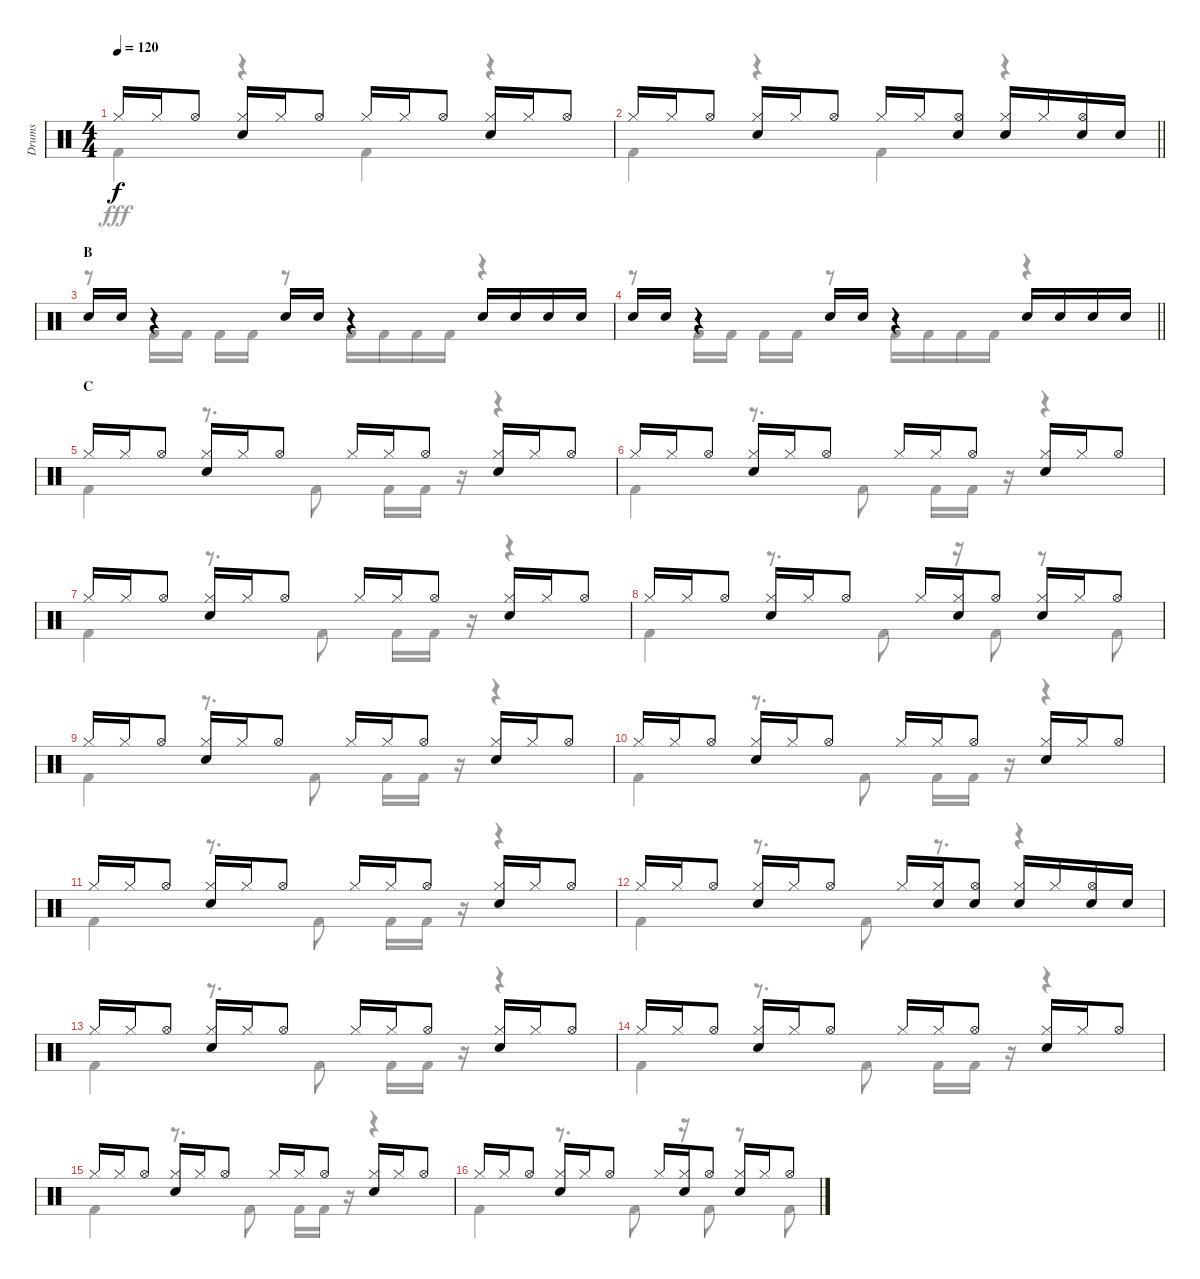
\track ("Drums" "Drums") {instrument percussion}
\staff {score}
\articulation defaults
\voice
\ts (4 4)
\tempo 120
\clef neutral
\ks c "Hi-Hat (closed)".16{dy f} "Hi-Hat (closed)".16 "Hi-Hat (open)".8
("Hi-Hat (closed)" "Electric Snare (hit)").16 "Hi-Hat (closed)".16 "Hi-Hat (open)".8 "Hi-Hat (closed)".16 "Hi-Hat (closed)".16 "Hi-Hat (open)".8 ("Hi-Hat (closed)" "Electric Snare (hit)").16 "Hi-Hat (closed)".16 "Hi-Hat (open)".8 |
\barLineRight lightlight "Hi-Hat (closed)".16 "Hi-Hat (closed)".16 "Hi-Hat (open)".8
("Hi-Hat (closed)" "Electric Snare (hit)").16 "Hi-Hat (closed)".16 "Hi-Hat (open)".8 "Hi-Hat (closed)".16 "Hi-Hat (closed)".16 ("Hi-Hat (open)" "Electric Snare (hit)").8 ("Hi-Hat (closed)" "Electric Snare (hit)").16 "Hi-Hat (closed)".16 ("Hi-Hat (open)" "Electric Snare (hit)").16 "Electric Snare (hit)".16 |
\section ("" "B")
"Electric Snare (hit)".16 "Electric Snare (hit)".16 r.4 "Electric Snare (hit)".16 "Electric Snare (hit)".16 r.4 "Electric Snare (hit)".16 "Electric Snare (hit)".16 "Electric Snare (hit)".16 "Electric Snare (hit)".16 |
\barLineRight lightlight "Electric Snare (hit)".16 "Electric Snare (hit)".16
r.4 "Electric Snare (hit)".16 "Electric Snare (hit)".16 r.4 "Electric Snare (hit)".16 "Electric Snare (hit)".16 "Electric Snare (hit)".16 "Electric Snare (hit)".16 |
\section ("" "C")
"Hi-Hat (closed)".16 "Hi-Hat (closed)".16 "Hi-Hat (open)".8 ("Hi-Hat (closed)" "Electric Snare (hit)").16 "Hi-Hat (closed)".16 "Hi-Hat (open)".8 "Hi-Hat (closed)".16 "Hi-Hat (closed)".16 "Hi-Hat (open)".8 ("Hi-Hat (closed)" "Electric Snare (hit)").16 "Hi-Hat (closed)".16 "Hi-Hat (open)".8 |
"Hi-Hat (closed)".16 "Hi-Hat (closed)".16 "Hi-Hat (open)".8 ("Hi-Hat (closed)" "Electric Snare (hit)").16 "Hi-Hat (closed)".16 "Hi-Hat (open)".8 "Hi-Hat (closed)".16 "Hi-Hat (closed)".16 "Hi-Hat (open)".8 ("Hi-Hat (closed)" "Electric Snare (hit)").16 "Hi-Hat (closed)".16 "Hi-Hat (open)".8 |
"Hi-Hat (closed)".16 "Hi-Hat (closed)".16 "Hi-Hat (open)".8 ("Hi-Hat (closed)" "Electric Snare (hit)").16 "Hi-Hat (closed)".16 "Hi-Hat (open)".8 "Hi-Hat (closed)".16 "Hi-Hat (closed)".16 "Hi-Hat (open)".8 ("Hi-Hat (closed)" "Electric Snare (hit)").16 "Hi-Hat (closed)".16 "Hi-Hat (open)".8 |
"Hi-Hat (closed)".16 "Hi-Hat (closed)".16 "Hi-Hat (open)".8 ("Hi-Hat (closed)" "Electric Snare (hit)").16 "Hi-Hat (closed)".16 "Hi-Hat (open)".8 "Hi-Hat (closed)".16 ("Hi-Hat (closed)" "Electric Snare (hit)").16 "Hi-Hat (open)".8 ("Hi-Hat (closed)" "Electric Snare (hit)").16 "Hi-Hat (closed)".16 "Hi-Hat (open)".8 |
"Hi-Hat (closed)".16 "Hi-Hat (closed)".16 "Hi-Hat (open)".8 ("Hi-Hat (closed)" "Electric Snare (hit)").16 "Hi-Hat (closed)".16 "Hi-Hat (open)".8 "Hi-Hat (closed)".16 "Hi-Hat (closed)".16 "Hi-Hat (open)".8 ("Hi-Hat (closed)" "Electric Snare (hit)").16 "Hi-Hat (closed)".16 "Hi-Hat (open)".8 |
"Hi-Hat (closed)".16 "Hi-Hat (closed)".16 "Hi-Hat (open)".8 ("Hi-Hat (closed)" "Electric Snare (hit)").16 "Hi-Hat (closed)".16 "Hi-Hat (open)".8 "Hi-Hat (closed)".16 "Hi-Hat (closed)".16 "Hi-Hat (open)".8 ("Hi-Hat (closed)" "Electric Snare (hit)").16 "Hi-Hat (closed)".16 "Hi-Hat (open)".8 |
"Hi-Hat (closed)".16 "Hi-Hat (closed)".16 "Hi-Hat (open)".8 ("Hi-Hat (closed)" "Electric Snare (hit)").16 "Hi-Hat (closed)".16 "Hi-Hat (open)".8 "Hi-Hat (closed)".16 "Hi-Hat (closed)".16 "Hi-Hat (open)".8 ("Hi-Hat (closed)" "Electric Snare (hit)").16 "Hi-Hat (closed)".16 "Hi-Hat (open)".8 |
"Hi-Hat (closed)".16 "Hi-Hat (closed)".16 "Hi-Hat (open)".8 ("Hi-Hat (closed)" "Electric Snare (hit)").16 "Hi-Hat (closed)".16 "Hi-Hat (open)".8 "Hi-Hat (closed)".16 ("Hi-Hat (closed)" "Electric Snare (hit)").16 ("Hi-Hat (open)" "Electric Snare (hit)").8 ("Hi-Hat (closed)" "Electric Snare (hit)").16 "Hi-Hat (closed)".16 ("Hi-Hat (open)" "Electric Snare (hit)").16 "Electric Snare (hit)".16 |
"Hi-Hat (closed)".16 "Hi-Hat (closed)".16 "Hi-Hat (open)".8 ("Hi-Hat (closed)" "Electric Snare (hit)").16 "Hi-Hat (closed)".16 "Hi-Hat (open)".8 "Hi-Hat (closed)".16 "Hi-Hat (closed)".16 "Hi-Hat (open)".8 ("Hi-Hat (closed)" "Electric Snare (hit)").16 "Hi-Hat (closed)".16 "Hi-Hat (open)".8 |
"Hi-Hat (closed)".16 "Hi-Hat (closed)".16 "Hi-Hat (open)".8 ("Hi-Hat (closed)" "Electric Snare (hit)").16 "Hi-Hat (closed)".16 "Hi-Hat (open)".8 "Hi-Hat (closed)".16 "Hi-Hat (closed)".16 "Hi-Hat (open)".8 ("Hi-Hat (closed)" "Electric Snare (hit)").16 "Hi-Hat (closed)".16 "Hi-Hat (open)".8 |
"Hi-Hat (closed)".16 "Hi-Hat (closed)".16 "Hi-Hat (open)".8 ("Hi-Hat (closed)" "Electric Snare (hit)").16 "Hi-Hat (closed)".16 "Hi-Hat (open)".8 "Hi-Hat (closed)".16 "Hi-Hat (closed)".16 "Hi-Hat (open)".8 ("Hi-Hat (closed)" "Electric Snare (hit)").16 "Hi-Hat (closed)".16 "Hi-Hat (open)".8 |
"Hi-Hat (closed)".16 "Hi-Hat (closed)".16 "Hi-Hat (open)".8 ("Hi-Hat (closed)" "Electric Snare (hit)").16 "Hi-Hat (closed)".16 "Hi-Hat (open)".8 "Hi-Hat (closed)".16 ("Hi-Hat (closed)" "Electric Snare (hit)").16 "Hi-Hat (open)".8 ("Hi-Hat (closed)" "Electric Snare (hit)").16 "Hi-Hat (closed)".16 "Hi-Hat (open)".8
\voice
\clef neutral
\ottava regular
\simile none
\ks c "Kick (hit) 2".4{dy fff}
r.4 "Kick (hit) 2".4 r.4 |
\barLineRight lightlight "Kick (hit) 2".4
r.4 "Kick (hit) 2".4 r.4 |
r.8 "Kick (hit) 2".16 "Kick (hit) 2".16 "Kick (hit) 2".16 "Kick (hit) 2".16 r.8 "Kick (hit) 2".16 "Kick (hit) 2".16 "Kick (hit) 2".16 "Kick (hit) 2".16 r.4 |
\barLineRight lightlight
r.8 "Kick (hit) 2".16 "Kick (hit) 2".16 "Kick (hit) 2".16 "Kick (hit) 2".16 r.8 "Kick (hit) 2".16 "Kick (hit) 2".16 "Kick (hit) 2".16 "Kick (hit) 2".16 r.4 |
"Kick (hit) 2".4 r.8{d} "Kick (hit) 2".8 "Kick (hit) 2".16 "Kick (hit) 2".16 r.16 r.4 |
"Kick (hit) 2".4 r.8{d} "Kick (hit) 2".8 "Kick (hit) 2".16 "Kick (hit) 2".16 r.16 r.4 |
"Kick (hit) 2".4 r.8{d} "Kick (hit) 2".8 "Kick (hit) 2".16 "Kick (hit) 2".16 r.16 r.4 |
"Kick (hit) 2".4 r.8{d} "Kick (hit) 2".8 r.16 "Kick (hit) 2".8 r.8 "Kick (hit) 2".8 |
"Kick (hit) 2".4 r.8{d} "Kick (hit) 2".8 "Kick (hit) 2".16 "Kick (hit) 2".16 r.16 r.4 |
"Kick (hit) 2".4 r.8{d} "Kick (hit) 2".8 "Kick (hit) 2".16 "Kick (hit) 2".16 r.16 r.4 |
"Kick (hit) 2".4 r.8{d} "Kick (hit) 2".8 "Kick (hit) 2".16 "Kick (hit) 2".16 r.16 r.4 |
"Kick (hit) 2".4 r.8{d} "Kick (hit) 2".8 r.8{d} r.4 |
"Kick (hit) 2".4 r.8{d} "Kick (hit) 2".8 "Kick (hit) 2".16 "Kick (hit) 2".16 r.16 r.4 |
"Kick (hit) 2".4 r.8{d} "Kick (hit) 2".8 "Kick (hit) 2".16 "Kick (hit) 2".16 r.16 r.4 |
"Kick (hit) 2".4 r.8{d} "Kick (hit) 2".8 "Kick (hit) 2".16 "Kick (hit) 2".16 r.16 r.4 |
"Kick (hit) 2".4 r.8{d} "Kick (hit) 2".8 r.16 "Kick (hit) 2".8 r.8 "Kick (hit) 2".8
